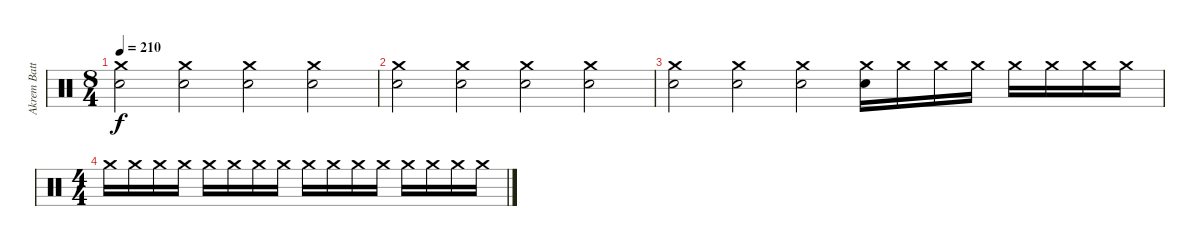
\track ("Akrem Batterie" "Akrem Batt") {instrument percussion}
\staff {score}
\articulation defaults
\ts (8 4)
\tempo 210
\clef neutral
\ks c
("Crash medium (hit)" "Electric Snare (hit)").2{dy f} ("Crash medium (hit)" "Electric Snare (hit)").2 ("Crash medium (hit)" "Electric Snare (hit)").2 ("Crash medium (hit)" "Electric Snare (hit)").2 |
("Crash medium (hit)" "Electric Snare (hit)").2 ("Crash medium (hit)" "Electric Snare (hit)").2 ("Crash medium (hit)" "Electric Snare (hit)").2 ("Crash medium (hit)" "Electric Snare (hit)").2 |
("Crash medium (hit)" "Electric Snare (hit)").2 ("Crash medium (hit)" "Electric Snare (hit)").2 ("Crash medium (hit)" "Electric Snare (hit)").2 ("Crash medium (hit)" "Electric Snare (hit)").16 "Crash medium (hit)".16 "Crash medium (hit)".16 "Crash medium (hit)".16 "Crash medium (hit)".16 "Crash medium (hit)".16 "Crash medium (hit)".16 "Crash medium (hit)".16 |
\ts (4 4)
"Crash medium (hit)".16 "Crash medium (hit)".16 "Crash medium (hit)".16 "Crash medium (hit)".16 "Crash medium (hit)".16 "Crash medium (hit)".16 "Crash medium (hit)".16 "Crash medium (hit)".16 "Crash medium (hit)".16 "Crash medium (hit)".16 "Crash medium (hit)".16 "Crash medium (hit)".16 "Crash medium (hit)".16 "Crash medium (hit)".16 "Crash medium (hit)".16 "Crash medium (hit)".16
